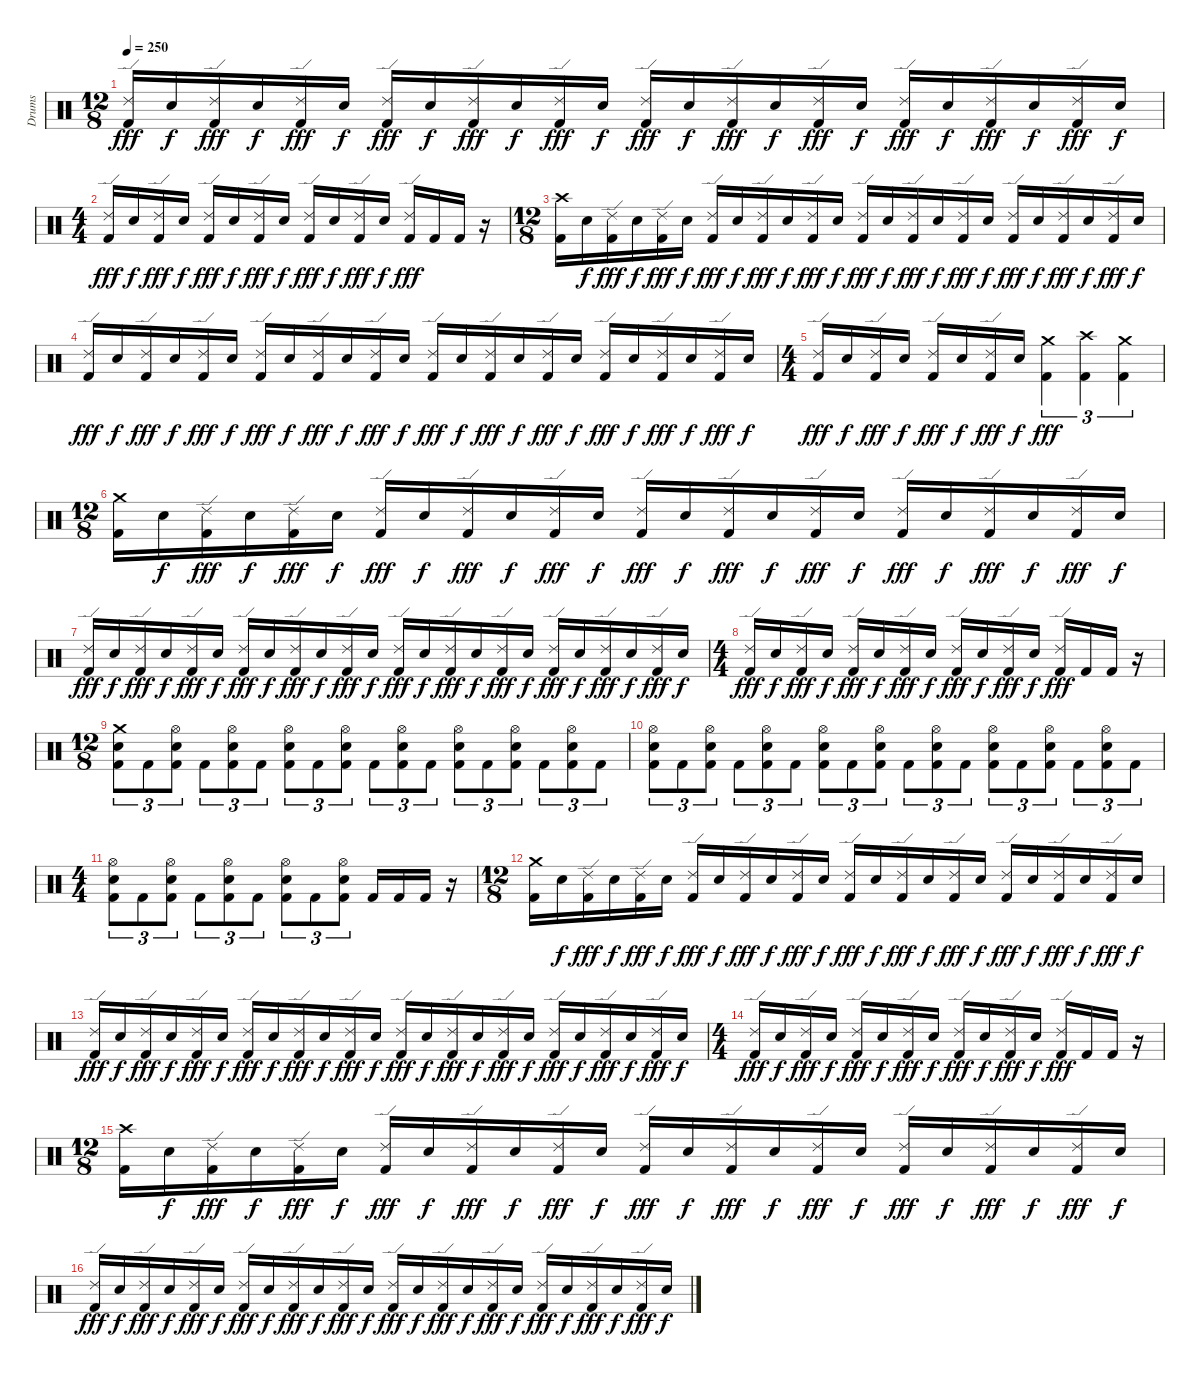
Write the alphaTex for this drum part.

\track ("Drums" "Drums") {instrument percussion}
\staff {score}
\articulation defaults
\ts (12 8)
\tempo 250
\clef neutral
\ks c
("Ride (edge) 2" "Kick (hit) 2").16{dy fff} "Electric Snare (hit)".16{dy f} ("Ride (edge) 2" "Kick (hit) 2").16{dy fff} "Electric Snare (hit)".16{dy f} ("Ride (edge) 2" "Kick (hit) 2").16{dy fff} "Electric Snare (hit)".16{dy f} ("Ride (edge) 2" "Kick (hit) 2").16{dy fff} "Electric Snare (hit)".16{dy f} ("Ride (edge) 2" "Kick (hit) 2").16{dy fff} "Electric Snare (hit)".16{dy f} ("Ride (edge) 2" "Kick (hit) 2").16{dy fff} "Electric Snare (hit)".16{dy f} ("Ride (edge) 2" "Kick (hit) 2").16{dy fff} "Electric Snare (hit)".16{dy f} ("Ride (edge) 2" "Kick (hit) 2").16{dy fff} "Electric Snare (hit)".16{dy f} ("Ride (edge) 2" "Kick (hit) 2").16{dy fff} "Electric Snare (hit)".16{dy f} ("Ride (edge) 2" "Kick (hit) 2").16{dy fff} "Electric Snare (hit)".16{dy f} ("Ride (edge) 2" "Kick (hit) 2").16{dy fff} "Electric Snare (hit)".16{dy f} ("Ride (edge) 2" "Kick (hit) 2").16{dy fff} "Electric Snare (hit)".16{dy f} |
\ts (4 4)
("Ride (edge) 2" "Kick (hit) 2").16{dy fff} "Electric Snare (hit)".16{dy f} ("Ride (edge) 2" "Kick (hit) 2").16{dy fff} "Electric Snare (hit)".16{dy f} ("Ride (edge) 2" "Kick (hit) 2").16{dy fff} "Electric Snare (hit)".16{dy f} ("Ride (edge) 2" "Kick (hit) 2").16{dy fff} "Electric Snare (hit)".16{dy f} ("Ride (edge) 2" "Kick (hit) 2").16{dy fff} "Electric Snare (hit)".16{dy f} ("Ride (edge) 2" "Kick (hit) 2").16{dy fff} "Electric Snare (hit)".16{dy f} ("Ride (edge) 2" "Kick (hit) 2").16{dy fff} "Kick (hit) 2".16 "Kick (hit) 2".16 r.16 |
\ts (12 8)
("Crash high (hit)" "Kick (hit) 2").16 "Electric Snare (hit)".16{dy f} ("Ride (edge) 2" "Kick (hit) 2").16{dy fff} "Electric Snare (hit)".16{dy f} ("Ride (edge) 2" "Kick (hit) 2").16{dy fff} "Electric Snare (hit)".16{dy f} ("Ride (edge) 2" "Kick (hit) 2").16{dy fff} "Electric Snare (hit)".16{dy f} ("Ride (edge) 2" "Kick (hit) 2").16{dy fff} "Electric Snare (hit)".16{dy f} ("Ride (edge) 2" "Kick (hit) 2").16{dy fff} "Electric Snare (hit)".16{dy f} ("Ride (edge) 2" "Kick (hit) 2").16{dy fff} "Electric Snare (hit)".16{dy f} ("Ride (edge) 2" "Kick (hit) 2").16{dy fff} "Electric Snare (hit)".16{dy f} ("Ride (edge) 2" "Kick (hit) 2").16{dy fff} "Electric Snare (hit)".16{dy f} ("Ride (edge) 2" "Kick (hit) 2").16{dy fff} "Electric Snare (hit)".16{dy f} ("Ride (edge) 2" "Kick (hit) 2").16{dy fff} "Electric Snare (hit)".16{dy f} ("Ride (edge) 2" "Kick (hit) 2").16{dy fff} "Electric Snare (hit)".16{dy f} |
("Ride (edge) 2" "Kick (hit) 2").16{dy fff} "Electric Snare (hit)".16{dy f} ("Ride (edge) 2" "Kick (hit) 2").16{dy fff} "Electric Snare (hit)".16{dy f} ("Ride (edge) 2" "Kick (hit) 2").16{dy fff} "Electric Snare (hit)".16{dy f} ("Ride (edge) 2" "Kick (hit) 2").16{dy fff} "Electric Snare (hit)".16{dy f} ("Ride (edge) 2" "Kick (hit) 2").16{dy fff} "Electric Snare (hit)".16{dy f} ("Ride (edge) 2" "Kick (hit) 2").16{dy fff} "Electric Snare (hit)".16{dy f} ("Ride (edge) 2" "Kick (hit) 2").16{dy fff} "Electric Snare (hit)".16{dy f} ("Ride (edge) 2" "Kick (hit) 2").16{dy fff} "Electric Snare (hit)".16{dy f} ("Ride (edge) 2" "Kick (hit) 2").16{dy fff} "Electric Snare (hit)".16{dy f} ("Ride (edge) 2" "Kick (hit) 2").16{dy fff} "Electric Snare (hit)".16{dy f} ("Ride (edge) 2" "Kick (hit) 2").16{dy fff} "Electric Snare (hit)".16{dy f} ("Ride (edge) 2" "Kick (hit) 2").16{dy fff} "Electric Snare (hit)".16{dy f} |
\ts (4 4)
("Ride (edge) 2" "Kick (hit) 2").16{dy fff} "Electric Snare (hit)".16{dy f} ("Ride (edge) 2" "Kick (hit) 2").16{dy fff} "Electric Snare (hit)".16{dy f} ("Ride (edge) 2" "Kick (hit) 2").16{dy fff} "Electric Snare (hit)".16{dy f} ("Ride (edge) 2" "Kick (hit) 2").16{dy fff} "Electric Snare (hit)".16{dy f} ("Crash medium (hit)" "Kick (hit) 2").4{tu (3 2) dy fff} ("Crash high (hit)" "Kick (hit) 2").4{tu (3 2)} ("Crash medium (hit)" "Kick (hit) 2").4{tu (3 2)} |
\ts (12 8)
("Crash medium (hit)" "Kick (hit) 2").16 "Electric Snare (hit)".16{dy f} ("Ride (edge) 2" "Kick (hit) 2").16{dy fff} "Electric Snare (hit)".16{dy f} ("Ride (edge) 2" "Kick (hit) 2").16{dy fff} "Electric Snare (hit)".16{dy f} ("Ride (edge) 2" "Kick (hit) 2").16{dy fff} "Electric Snare (hit)".16{dy f} ("Ride (edge) 2" "Kick (hit) 2").16{dy fff} "Electric Snare (hit)".16{dy f} ("Ride (edge) 2" "Kick (hit) 2").16{dy fff} "Electric Snare (hit)".16{dy f} ("Ride (edge) 2" "Kick (hit) 2").16{dy fff} "Electric Snare (hit)".16{dy f} ("Ride (edge) 2" "Kick (hit) 2").16{dy fff} "Electric Snare (hit)".16{dy f} ("Ride (edge) 2" "Kick (hit) 2").16{dy fff} "Electric Snare (hit)".16{dy f} ("Ride (edge) 2" "Kick (hit) 2").16{dy fff} "Electric Snare (hit)".16{dy f} ("Ride (edge) 2" "Kick (hit) 2").16{dy fff} "Electric Snare (hit)".16{dy f} ("Ride (edge) 2" "Kick (hit) 2").16{dy fff} "Electric Snare (hit)".16{dy f} |
("Ride (edge) 2" "Kick (hit) 2").16{dy fff} "Electric Snare (hit)".16{dy f} ("Ride (edge) 2" "Kick (hit) 2").16{dy fff} "Electric Snare (hit)".16{dy f} ("Ride (edge) 2" "Kick (hit) 2").16{dy fff} "Electric Snare (hit)".16{dy f} ("Ride (edge) 2" "Kick (hit) 2").16{dy fff} "Electric Snare (hit)".16{dy f} ("Ride (edge) 2" "Kick (hit) 2").16{dy fff} "Electric Snare (hit)".16{dy f} ("Ride (edge) 2" "Kick (hit) 2").16{dy fff} "Electric Snare (hit)".16{dy f} ("Ride (edge) 2" "Kick (hit) 2").16{dy fff} "Electric Snare (hit)".16{dy f} ("Ride (edge) 2" "Kick (hit) 2").16{dy fff} "Electric Snare (hit)".16{dy f} ("Ride (edge) 2" "Kick (hit) 2").16{dy fff} "Electric Snare (hit)".16{dy f} ("Ride (edge) 2" "Kick (hit) 2").16{dy fff} "Electric Snare (hit)".16{dy f} ("Ride (edge) 2" "Kick (hit) 2").16{dy fff} "Electric Snare (hit)".16{dy f} ("Ride (edge) 2" "Kick (hit) 2").16{dy fff} "Electric Snare (hit)".16{dy f} |
\ts (4 4)
("Ride (edge) 2" "Kick (hit) 2").16{dy fff} "Electric Snare (hit)".16{dy f} ("Ride (edge) 2" "Kick (hit) 2").16{dy fff} "Electric Snare (hit)".16{dy f} ("Ride (edge) 2" "Kick (hit) 2").16{dy fff} "Electric Snare (hit)".16{dy f} ("Ride (edge) 2" "Kick (hit) 2").16{dy fff} "Electric Snare (hit)".16{dy f} ("Ride (edge) 2" "Kick (hit) 2").16{dy fff} "Electric Snare (hit)".16{dy f} ("Ride (edge) 2" "Kick (hit) 2").16{dy fff} "Electric Snare (hit)".16{dy f} ("Ride (edge) 2" "Kick (hit) 2").16{dy fff} "Kick (hit) 2".16 "Kick (hit) 2".16 r.16 |
\ts (12 8)
("Crash medium (hit)" "Electric Snare (hit)" "Kick (hit) 2").8{tu (3 2)} "Kick (hit) 2".8{tu (3 2)} ("Hi-Hat (open)" "Electric Snare (hit)" "Kick (hit) 2").8{tu (3 2)} "Kick (hit) 2".8{tu (3 2)} ("Hi-Hat (open)" "Electric Snare (hit)" "Kick (hit) 2").8{tu (3 2)} "Kick (hit) 2".8{tu (3 2)} ("Hi-Hat (open)" "Electric Snare (hit)" "Kick (hit) 2").8{tu (3 2)} "Kick (hit) 2".8{tu (3 2)} ("Hi-Hat (open)" "Electric Snare (hit)" "Kick (hit) 2").8{tu (3 2)} "Kick (hit) 2".8{tu (3 2)} ("Hi-Hat (open)" "Electric Snare (hit)" "Kick (hit) 2").8{tu (3 2)} "Kick (hit) 2".8{tu (3 2)} ("Hi-Hat (open)" "Electric Snare (hit)" "Kick (hit) 2").8{tu (3 2)} "Kick (hit) 2".8{tu (3 2)} ("Hi-Hat (open)" "Electric Snare (hit)" "Kick (hit) 2").8{tu (3 2)} "Kick (hit) 2".8{tu (3 2)} ("Hi-Hat (open)" "Electric Snare (hit)" "Kick (hit) 2").8{tu (3 2)} "Kick (hit) 2".8{tu (3 2)} |
("Hi-Hat (open)" "Electric Snare (hit)" "Kick (hit) 2").8{tu (3 2)} "Kick (hit) 2".8{tu (3 2)} ("Hi-Hat (open)" "Electric Snare (hit)" "Kick (hit) 2").8{tu (3 2)} "Kick (hit) 2".8{tu (3 2)} ("Hi-Hat (open)" "Electric Snare (hit)" "Kick (hit) 2").8{tu (3 2)} "Kick (hit) 2".8{tu (3 2)} ("Hi-Hat (open)" "Electric Snare (hit)" "Kick (hit) 2").8{tu (3 2)} "Kick (hit) 2".8{tu (3 2)} ("Hi-Hat (open)" "Electric Snare (hit)" "Kick (hit) 2").8{tu (3 2)} "Kick (hit) 2".8{tu (3 2)} ("Hi-Hat (open)" "Electric Snare (hit)" "Kick (hit) 2").8{tu (3 2)} "Kick (hit) 2".8{tu (3 2)} ("Hi-Hat (open)" "Electric Snare (hit)" "Kick (hit) 2").8{tu (3 2)} "Kick (hit) 2".8{tu (3 2)} ("Hi-Hat (open)" "Electric Snare (hit)" "Kick (hit) 2").8{tu (3 2)} "Kick (hit) 2".8{tu (3 2)} ("Hi-Hat (open)" "Electric Snare (hit)" "Kick (hit) 2").8{tu (3 2)} "Kick (hit) 2".8{tu (3 2)} |
\ts (4 4)
("Hi-Hat (open)" "Electric Snare (hit)" "Kick (hit) 2").8{tu (3 2)} "Kick (hit) 2".8{tu (3 2)} ("Hi-Hat (open)" "Electric Snare (hit)" "Kick (hit) 2").8{tu (3 2)} "Kick (hit) 2".8{tu (3 2)} ("Hi-Hat (open)" "Electric Snare (hit)" "Kick (hit) 2").8{tu (3 2)} "Kick (hit) 2".8{tu (3 2)} ("Hi-Hat (open)" "Electric Snare (hit)" "Kick (hit) 2").8{tu (3 2)} "Kick (hit) 2".8{tu (3 2)} ("Hi-Hat (open)" "Electric Snare (hit)" "Kick (hit) 2").8{tu (3 2)} "Kick (hit) 2".16 "Kick (hit) 2".16 "Kick (hit) 2".16 r.16 |
\ts (12 8)
("Crash medium (hit)" "Kick (hit) 2").16 "Electric Snare (hit)".16{dy f} ("Ride (edge) 2" "Kick (hit) 2").16{dy fff} "Electric Snare (hit)".16{dy f} ("Ride (edge) 2" "Kick (hit) 2").16{dy fff} "Electric Snare (hit)".16{dy f} ("Ride (edge) 2" "Kick (hit) 2").16{dy fff} "Electric Snare (hit)".16{dy f} ("Ride (edge) 2" "Kick (hit) 2").16{dy fff} "Electric Snare (hit)".16{dy f} ("Ride (edge) 2" "Kick (hit) 2").16{dy fff} "Electric Snare (hit)".16{dy f} ("Ride (edge) 2" "Kick (hit) 2").16{dy fff} "Electric Snare (hit)".16{dy f} ("Ride (edge) 2" "Kick (hit) 2").16{dy fff} "Electric Snare (hit)".16{dy f} ("Ride (edge) 2" "Kick (hit) 2").16{dy fff} "Electric Snare (hit)".16{dy f} ("Ride (edge) 2" "Kick (hit) 2").16{dy fff} "Electric Snare (hit)".16{dy f} ("Ride (edge) 2" "Kick (hit) 2").16{dy fff} "Electric Snare (hit)".16{dy f} ("Ride (edge) 2" "Kick (hit) 2").16{dy fff} "Electric Snare (hit)".16{dy f} |
("Ride (edge) 2" "Kick (hit) 2").16{dy fff} "Electric Snare (hit)".16{dy f} ("Ride (edge) 2" "Kick (hit) 2").16{dy fff} "Electric Snare (hit)".16{dy f} ("Ride (edge) 2" "Kick (hit) 2").16{dy fff} "Electric Snare (hit)".16{dy f} ("Ride (edge) 2" "Kick (hit) 2").16{dy fff} "Electric Snare (hit)".16{dy f} ("Ride (edge) 2" "Kick (hit) 2").16{dy fff} "Electric Snare (hit)".16{dy f} ("Ride (edge) 2" "Kick (hit) 2").16{dy fff} "Electric Snare (hit)".16{dy f} ("Ride (edge) 2" "Kick (hit) 2").16{dy fff} "Electric Snare (hit)".16{dy f} ("Ride (edge) 2" "Kick (hit) 2").16{dy fff} "Electric Snare (hit)".16{dy f} ("Ride (edge) 2" "Kick (hit) 2").16{dy fff} "Electric Snare (hit)".16{dy f} ("Ride (edge) 2" "Kick (hit) 2").16{dy fff} "Electric Snare (hit)".16{dy f} ("Ride (edge) 2" "Kick (hit) 2").16{dy fff} "Electric Snare (hit)".16{dy f} ("Ride (edge) 2" "Kick (hit) 2").16{dy fff} "Electric Snare (hit)".16{dy f} |
\ts (4 4)
("Ride (edge) 2" "Kick (hit) 2").16{dy fff} "Electric Snare (hit)".16{dy f} ("Ride (edge) 2" "Kick (hit) 2").16{dy fff} "Electric Snare (hit)".16{dy f} ("Ride (edge) 2" "Kick (hit) 2").16{dy fff} "Electric Snare (hit)".16{dy f} ("Ride (edge) 2" "Kick (hit) 2").16{dy fff} "Electric Snare (hit)".16{dy f} ("Ride (edge) 2" "Kick (hit) 2").16{dy fff} "Electric Snare (hit)".16{dy f} ("Ride (edge) 2" "Kick (hit) 2").16{dy fff} "Electric Snare (hit)".16{dy f} ("Ride (edge) 2" "Kick (hit) 2").16{dy fff} "Kick (hit) 2".16 "Kick (hit) 2".16 r.16 |
\ts (12 8)
("Crash high (hit)" "Kick (hit) 2").16 "Electric Snare (hit)".16{dy f} ("Ride (edge) 2" "Kick (hit) 2").16{dy fff} "Electric Snare (hit)".16{dy f} ("Ride (edge) 2" "Kick (hit) 2").16{dy fff} "Electric Snare (hit)".16{dy f} ("Ride (edge) 2" "Kick (hit) 2").16{dy fff} "Electric Snare (hit)".16{dy f} ("Ride (edge) 2" "Kick (hit) 2").16{dy fff} "Electric Snare (hit)".16{dy f} ("Ride (edge) 2" "Kick (hit) 2").16{dy fff} "Electric Snare (hit)".16{dy f} ("Ride (edge) 2" "Kick (hit) 2").16{dy fff} "Electric Snare (hit)".16{dy f} ("Ride (edge) 2" "Kick (hit) 2").16{dy fff} "Electric Snare (hit)".16{dy f} ("Ride (edge) 2" "Kick (hit) 2").16{dy fff} "Electric Snare (hit)".16{dy f} ("Ride (edge) 2" "Kick (hit) 2").16{dy fff} "Electric Snare (hit)".16{dy f} ("Ride (edge) 2" "Kick (hit) 2").16{dy fff} "Electric Snare (hit)".16{dy f} ("Ride (edge) 2" "Kick (hit) 2").16{dy fff} "Electric Snare (hit)".16{dy f} |
("Ride (edge) 2" "Kick (hit) 2").16{dy fff} "Electric Snare (hit)".16{dy f} ("Ride (edge) 2" "Kick (hit) 2").16{dy fff} "Electric Snare (hit)".16{dy f} ("Ride (edge) 2" "Kick (hit) 2").16{dy fff} "Electric Snare (hit)".16{dy f} ("Ride (edge) 2" "Kick (hit) 2").16{dy fff} "Electric Snare (hit)".16{dy f} ("Ride (edge) 2" "Kick (hit) 2").16{dy fff} "Electric Snare (hit)".16{dy f} ("Ride (edge) 2" "Kick (hit) 2").16{dy fff} "Electric Snare (hit)".16{dy f} ("Ride (edge) 2" "Kick (hit) 2").16{dy fff} "Electric Snare (hit)".16{dy f} ("Ride (edge) 2" "Kick (hit) 2").16{dy fff} "Electric Snare (hit)".16{dy f} ("Ride (edge) 2" "Kick (hit) 2").16{dy fff} "Electric Snare (hit)".16{dy f} ("Ride (edge) 2" "Kick (hit) 2").16{dy fff} "Electric Snare (hit)".16{dy f} ("Ride (edge) 2" "Kick (hit) 2").16{dy fff} "Electric Snare (hit)".16{dy f} ("Ride (edge) 2" "Kick (hit) 2").16{dy fff} "Electric Snare (hit)".16{dy f}
